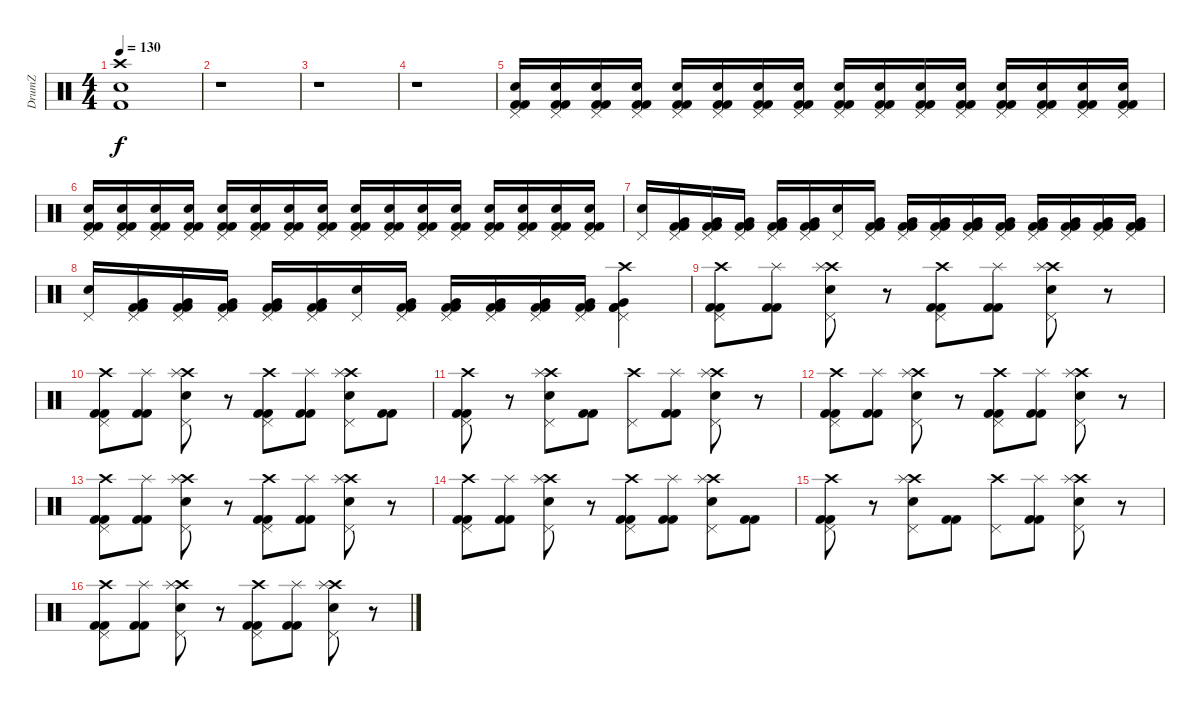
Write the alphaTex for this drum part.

\track ("DrumZ" "DrumZ") {instrument percussion}
\staff {score}
\articulation defaults
\ts (4 4)
\tempo 130
\clef neutral
\ks c
("Crash high (hit)" "Snare (hit) 2" "Kick (hit) 2").1{dy f} |
r.1 |
r.1 |
r.1 |
("Pedal Hi-Hat (hit)" "Snare (hit) 2" "Kick (hit) 2" "Kick (hit) 2").16{volume 4} ("Pedal Hi-Hat (hit)" "Snare (hit) 2" "Kick (hit) 2" "Kick (hit) 2").16 ("Pedal Hi-Hat (hit)" "Snare (hit) 2" "Kick (hit) 2" "Kick (hit) 2").16 ("Pedal Hi-Hat (hit)" "Snare (hit) 2" "Kick (hit) 2" "Kick (hit) 2").16 ("Pedal Hi-Hat (hit)" "Snare (hit) 2" "Kick (hit) 2" "Kick (hit) 2").16{volume 5} ("Pedal Hi-Hat (hit)" "Snare (hit) 2" "Kick (hit) 2" "Kick (hit) 2").16 ("Pedal Hi-Hat (hit)" "Snare (hit) 2" "Kick (hit) 2" "Kick (hit) 2").16 ("Pedal Hi-Hat (hit)" "Snare (hit) 2" "Kick (hit) 2" "Kick (hit) 2").16 ("Pedal Hi-Hat (hit)" "Snare (hit) 2" "Kick (hit) 2" "Kick (hit) 2").16{volume 6} ("Pedal Hi-Hat (hit)" "Snare (hit) 2" "Kick (hit) 2" "Kick (hit) 2").16 ("Pedal Hi-Hat (hit)" "Snare (hit) 2" "Kick (hit) 2" "Kick (hit) 2").16 ("Pedal Hi-Hat (hit)" "Snare (hit) 2" "Kick (hit) 2" "Kick (hit) 2").16 ("Pedal Hi-Hat (hit)" "Snare (hit) 2" "Kick (hit) 2" "Kick (hit) 2").16{volume 7} ("Pedal Hi-Hat (hit)" "Snare (hit) 2" "Kick (hit) 2" "Kick (hit) 2").16 ("Pedal Hi-Hat (hit)" "Snare (hit) 2" "Kick (hit) 2" "Kick (hit) 2").16 ("Pedal Hi-Hat (hit)" "Snare (hit) 2" "Kick (hit) 2" "Kick (hit) 2").16 |
("Pedal Hi-Hat (hit)" "Snare (hit) 2" "Kick (hit) 2" "Kick (hit) 2").16{volume 9} ("Pedal Hi-Hat (hit)" "Snare (hit) 2" "Kick (hit) 2" "Kick (hit) 2").16 ("Pedal Hi-Hat (hit)" "Snare (hit) 2" "Kick (hit) 2" "Kick (hit) 2").16 ("Pedal Hi-Hat (hit)" "Snare (hit) 2" "Kick (hit) 2" "Kick (hit) 2").16 ("Pedal Hi-Hat (hit)" "Snare (hit) 2" "Kick (hit) 2" "Kick (hit) 2").16{volume 11} ("Pedal Hi-Hat (hit)" "Snare (hit) 2" "Kick (hit) 2" "Kick (hit) 2").16 ("Pedal Hi-Hat (hit)" "Snare (hit) 2" "Kick (hit) 2" "Kick (hit) 2").16 ("Pedal Hi-Hat (hit)" "Snare (hit) 2" "Kick (hit) 2" "Kick (hit) 2").16 ("Pedal Hi-Hat (hit)" "Snare (hit) 2" "Kick (hit) 2" "Kick (hit) 2").16{volume 12} ("Pedal Hi-Hat (hit)" "Snare (hit) 2" "Kick (hit) 2" "Kick (hit) 2").16 ("Pedal Hi-Hat (hit)" "Snare (hit) 2" "Kick (hit) 2" "Kick (hit) 2").16 ("Pedal Hi-Hat (hit)" "Snare (hit) 2" "Kick (hit) 2" "Kick (hit) 2").16 ("Pedal Hi-Hat (hit)" "Snare (hit) 2" "Kick (hit) 2" "Kick (hit) 2").16{volume 15} ("Pedal Hi-Hat (hit)" "Snare (hit) 2" "Kick (hit) 2" "Kick (hit) 2").16 ("Pedal Hi-Hat (hit)" "Snare (hit) 2" "Kick (hit) 2" "Kick (hit) 2").16 ("Pedal Hi-Hat (hit)" "Snare (hit) 2" "Kick (hit) 2" "Kick (hit) 2").16 |
("Pedal Hi-Hat (hit)" "Snare (hit) 2").16 ("Pedal Hi-Hat (hit)" "Kick (hit) 2" "Very Low Tom (hit)" "Kick (hit) 2").16 ("Pedal Hi-Hat (hit)" "Kick (hit) 2" "Very Low Tom (hit)" "Kick (hit) 2").16 ("Pedal Hi-Hat (hit)" "Kick (hit) 2" "Very Low Tom (hit)" "Kick (hit) 2").16 ("Pedal Hi-Hat (hit)" "Kick (hit) 2" "Very Low Tom (hit)" "Kick (hit) 2").16 ("Pedal Hi-Hat (hit)" "Kick (hit) 2" "Very Low Tom (hit)" "Kick (hit) 2").16 ("Pedal Hi-Hat (hit)" "Snare (hit) 2").16 ("Pedal Hi-Hat (hit)" "Kick (hit) 2" "Very Low Tom (hit)" "Kick (hit) 2").16 ("Pedal Hi-Hat (hit)" "Kick (hit) 2" "Very Low Tom (hit)" "Kick (hit) 2").16 ("Pedal Hi-Hat (hit)" "Kick (hit) 2" "Very Low Tom (hit)" "Kick (hit) 2").16 ("Pedal Hi-Hat (hit)" "Kick (hit) 2" "Very Low Tom (hit)" "Kick (hit) 2").16 ("Pedal Hi-Hat (hit)" "Kick (hit) 2" "Very Low Tom (hit)" "Kick (hit) 2").16 ("Pedal Hi-Hat (hit)" "Kick (hit) 2" "Very Low Tom (hit)" "Kick (hit) 2").16 ("Pedal Hi-Hat (hit)" "Kick (hit) 2" "Very Low Tom (hit)" "Kick (hit) 2").16 ("Pedal Hi-Hat (hit)" "Kick (hit) 2" "Very Low Tom (hit)" "Kick (hit) 2").16 ("Pedal Hi-Hat (hit)" "Kick (hit) 2" "Very Low Tom (hit)" "Kick (hit) 2").16 |
("Pedal Hi-Hat (hit)" "Snare (hit) 2").16 ("Pedal Hi-Hat (hit)" "Kick (hit) 2" "Very Low Tom (hit)" "Kick (hit) 2").16 ("Pedal Hi-Hat (hit)" "Kick (hit) 2" "Very Low Tom (hit)" "Kick (hit) 2").16 ("Pedal Hi-Hat (hit)" "Kick (hit) 2" "Very Low Tom (hit)" "Kick (hit) 2").16 ("Pedal Hi-Hat (hit)" "Kick (hit) 2" "Very Low Tom (hit)" "Kick (hit) 2").16 ("Pedal Hi-Hat (hit)" "Kick (hit) 2" "Very Low Tom (hit)" "Kick (hit) 2").16 ("Pedal Hi-Hat (hit)" "Snare (hit) 2").16 ("Pedal Hi-Hat (hit)" "Kick (hit) 2" "Very Low Tom (hit)" "Kick (hit) 2").16 ("Pedal Hi-Hat (hit)" "Kick (hit) 2" "Very Low Tom (hit)" "Kick (hit) 2").16 ("Pedal Hi-Hat (hit)" "Kick (hit) 2" "Very Low Tom (hit)" "Kick (hit) 2").16 ("Pedal Hi-Hat (hit)" "Kick (hit) 2" "Very Low Tom (hit)" "Kick (hit) 2").16 ("Pedal Hi-Hat (hit)" "Kick (hit) 2" "Very Low Tom (hit)" "Kick (hit) 2").16 ("Pedal Hi-Hat (hit)" "Crash high (hit)" "Kick (hit) 2" "Very Low Tom (hit)" "Kick (hit) 2").4 |
("Pedal Hi-Hat (hit)" "Crash high (hit)" "Kick (hit) 2" "Kick (hit) 2").8 ("Splash (hit)" "Kick (hit) 2" "Kick (hit) 2").8 ("Pedal Hi-Hat (hit)" "Crash high (hit)" "Splash (hit)" "Snare (hit) 2").8 r.8 ("Pedal Hi-Hat (hit)" "Crash high (hit)" "Kick (hit) 2" "Kick (hit) 2").8 ("Splash (hit)" "Kick (hit) 2" "Kick (hit) 2").8 ("Pedal Hi-Hat (hit)" "Crash high (hit)" "Splash (hit)" "Snare (hit) 2").8 r.8 |
("Pedal Hi-Hat (hit)" "Crash high (hit)" "Kick (hit) 2" "Kick (hit) 2").8 ("Splash (hit)" "Kick (hit) 2" "Kick (hit) 2").8 ("Pedal Hi-Hat (hit)" "Crash high (hit)" "Splash (hit)" "Snare (hit) 2").8 r.8 ("Pedal Hi-Hat (hit)" "Crash high (hit)" "Kick (hit) 2" "Kick (hit) 2").8 ("Splash (hit)" "Kick (hit) 2" "Kick (hit) 2").8 ("Pedal Hi-Hat (hit)" "Crash high (hit)" "Splash (hit)" "Snare (hit) 2").8 ("Kick (hit) 2" "Kick (hit) 2").8 |
("Pedal Hi-Hat (hit)" "Crash high (hit)" "Kick (hit) 2" "Kick (hit) 2").8 r.8 ("Pedal Hi-Hat (hit)" "Crash high (hit)" "Splash (hit)" "Snare (hit) 2").8 ("Kick (hit) 2" "Kick (hit) 2").8 ("Pedal Hi-Hat (hit)" "Crash high (hit)").8 ("Splash (hit)" "Kick (hit) 2" "Kick (hit) 2").8 ("Pedal Hi-Hat (hit)" "Crash high (hit)" "Splash (hit)" "Snare (hit) 2").8 r.8 |
("Pedal Hi-Hat (hit)" "Crash high (hit)" "Kick (hit) 2" "Kick (hit) 2").8 ("Splash (hit)" "Kick (hit) 2" "Kick (hit) 2").8 ("Pedal Hi-Hat (hit)" "Crash high (hit)" "Splash (hit)" "Snare (hit) 2").8 r.8 ("Pedal Hi-Hat (hit)" "Crash high (hit)" "Kick (hit) 2" "Kick (hit) 2").8 ("Splash (hit)" "Kick (hit) 2" "Kick (hit) 2").8 ("Pedal Hi-Hat (hit)" "Crash high (hit)" "Splash (hit)" "Snare (hit) 2").8 r.8 |
("Pedal Hi-Hat (hit)" "Crash high (hit)" "Kick (hit) 2" "Kick (hit) 2").8 ("Splash (hit)" "Kick (hit) 2" "Kick (hit) 2").8 ("Pedal Hi-Hat (hit)" "Crash high (hit)" "Splash (hit)" "Snare (hit) 2").8 r.8 ("Pedal Hi-Hat (hit)" "Crash high (hit)" "Kick (hit) 2" "Kick (hit) 2").8 ("Splash (hit)" "Kick (hit) 2" "Kick (hit) 2").8 ("Pedal Hi-Hat (hit)" "Crash high (hit)" "Splash (hit)" "Snare (hit) 2").8 r.8 |
("Pedal Hi-Hat (hit)" "Crash high (hit)" "Kick (hit) 2" "Kick (hit) 2").8 ("Splash (hit)" "Kick (hit) 2" "Kick (hit) 2").8 ("Pedal Hi-Hat (hit)" "Crash high (hit)" "Splash (hit)" "Snare (hit) 2").8 r.8 ("Pedal Hi-Hat (hit)" "Crash high (hit)" "Kick (hit) 2" "Kick (hit) 2").8 ("Splash (hit)" "Kick (hit) 2" "Kick (hit) 2").8 ("Pedal Hi-Hat (hit)" "Crash high (hit)" "Splash (hit)" "Snare (hit) 2").8 ("Kick (hit) 2" "Kick (hit) 2").8 |
("Pedal Hi-Hat (hit)" "Crash high (hit)" "Kick (hit) 2" "Kick (hit) 2").8 r.8 ("Pedal Hi-Hat (hit)" "Crash high (hit)" "Splash (hit)" "Snare (hit) 2").8 ("Kick (hit) 2" "Kick (hit) 2").8 ("Pedal Hi-Hat (hit)" "Crash high (hit)").8 ("Splash (hit)" "Kick (hit) 2" "Kick (hit) 2").8 ("Pedal Hi-Hat (hit)" "Crash high (hit)" "Splash (hit)" "Snare (hit) 2").8 r.8 |
("Pedal Hi-Hat (hit)" "Crash high (hit)" "Kick (hit) 2" "Kick (hit) 2").8 ("Splash (hit)" "Kick (hit) 2" "Kick (hit) 2").8 ("Pedal Hi-Hat (hit)" "Crash high (hit)" "Splash (hit)" "Snare (hit) 2").8 r.8 ("Pedal Hi-Hat (hit)" "Crash high (hit)" "Kick (hit) 2" "Kick (hit) 2").8 ("Splash (hit)" "Kick (hit) 2" "Kick (hit) 2").8 ("Pedal Hi-Hat (hit)" "Crash high (hit)" "Splash (hit)" "Snare (hit) 2").8 r.8
